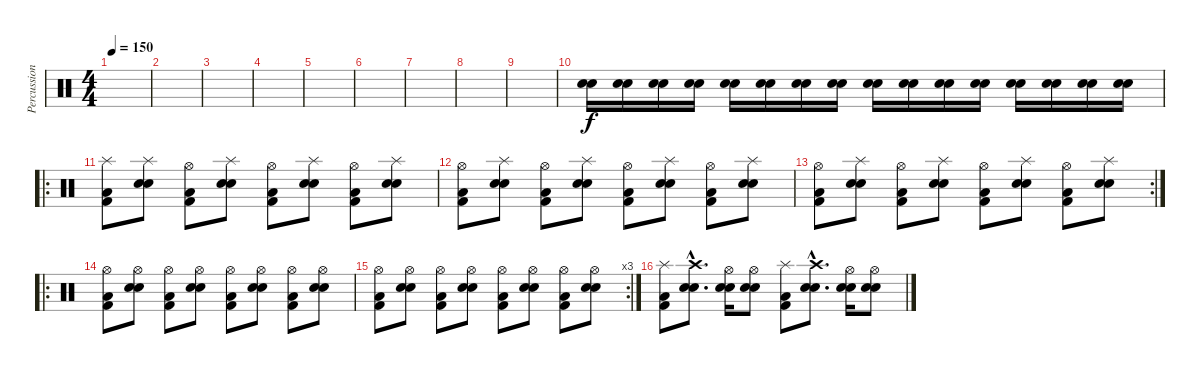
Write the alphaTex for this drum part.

\track ("Percussions" "Percussion") {instrument percussion}
\staff {score}
\articulation defaults
\ts (4 4)
\tempo 150
\clef neutral
\ks c
|
|
|
|
|
|
|
|
|
("Snare (hit) 2" "Snare (hit) 2").16 ("Snare (hit) 2" "Snare (hit) 2").16 ("Snare (hit) 2" "Snare (hit) 2").16 ("Snare (hit) 2" "Snare (hit) 2").16 ("Snare (hit) 2" "Snare (hit) 2").16 ("Snare (hit) 2" "Snare (hit) 2").16 ("Snare (hit) 2" "Snare (hit) 2").16 ("Snare (hit) 2" "Snare (hit) 2").16 ("Snare (hit) 2" "Snare (hit) 2").16 ("Snare (hit) 2" "Snare (hit) 2").16 ("Snare (hit) 2" "Snare (hit) 2").16 ("Snare (hit) 2" "Snare (hit) 2").16 ("Electric Snare (hit)" "Snare (hit) 2").16 ("Electric Snare (hit)" "Snare (hit) 2").16 ("Electric Snare (hit)" "Snare (hit) 2").16 ("Electric Snare (hit)" "Snare (hit) 2").16 |
\ro
("Splash (hit)" "Kick (hit) 2" "Low Floor Tom (hit)").8 ("Splash (hit)" "Snare (hit) 2" "Electric Snare (hit)").8 ("Hi-Hat (open)" "Kick (hit) 2" "Low Floor Tom (hit)").8 ("Splash (hit)" "Snare (hit) 2" "Electric Snare (hit)").8 ("Hi-Hat (open)" "Kick (hit) 2" "Low Floor Tom (hit)").8 ("Splash (hit)" "Snare (hit) 2" "Electric Snare (hit)").8 ("Hi-Hat (open)" "Kick (hit) 2" "Low Floor Tom (hit)").8 ("Splash (hit)" "Snare (hit) 2" "Electric Snare (hit)").8 |
("Hi-Hat (open)" "Kick (hit) 2" "Low Floor Tom (hit)").8 ("Splash (hit)" "Snare (hit) 2" "Electric Snare (hit)").8 ("Hi-Hat (open)" "Kick (hit) 2" "Low Floor Tom (hit)").8 ("Splash (hit)" "Snare (hit) 2" "Electric Snare (hit)").8 ("Hi-Hat (open)" "Kick (hit) 2" "Low Floor Tom (hit)").8 ("Splash (hit)" "Snare (hit) 2" "Electric Snare (hit)").8 ("Hi-Hat (open)" "Kick (hit) 2" "Low Floor Tom (hit)").8 ("Splash (hit)" "Snare (hit) 2" "Electric Snare (hit)").8 |
\rc 2
("Hi-Hat (open)" "Kick (hit) 2" "Low Floor Tom (hit)").8 ("Splash (hit)" "Snare (hit) 2" "Electric Snare (hit)").8 ("Hi-Hat (open)" "Kick (hit) 2" "Low Floor Tom (hit)").8 ("Splash (hit)" "Snare (hit) 2" "Electric Snare (hit)").8 ("Hi-Hat (open)" "Kick (hit) 2" "Low Floor Tom (hit)").8 ("Splash (hit)" "Snare (hit) 2" "Electric Snare (hit)").8 ("Hi-Hat (open)" "Kick (hit) 2" "Low Floor Tom (hit)").8 ("Splash (hit)" "Snare (hit) 2" "Electric Snare (hit)").8 |
\ro
("Hi-Hat (open)" "Kick (hit) 2" "Low Floor Tom (hit)").8 ("Hi-Hat (open)" "Snare (hit) 2" "Electric Snare (hit)").8 ("Hi-Hat (open)" "Kick (hit) 2" "Low Floor Tom (hit)").8 ("Hi-Hat (open)" "Snare (hit) 2" "Electric Snare (hit)").8 ("Hi-Hat (open)" "Kick (hit) 2" "Low Floor Tom (hit)").8 ("Hi-Hat (open)" "Snare (hit) 2" "Electric Snare (hit)").8 ("Hi-Hat (open)" "Kick (hit) 2" "Low Floor Tom (hit)").8 ("Hi-Hat (open)" "Snare (hit) 2" "Electric Snare (hit)").8 |
\rc 3
("Hi-Hat (open)" "Kick (hit) 2" "Low Floor Tom (hit)").8 ("Hi-Hat (open)" "Snare (hit) 2" "Electric Snare (hit)").8 ("Hi-Hat (open)" "Kick (hit) 2" "Low Floor Tom (hit)").8 ("Hi-Hat (open)" "Snare (hit) 2" "Electric Snare (hit)").8 ("Hi-Hat (open)" "Kick (hit) 2" "Low Floor Tom (hit)").8 ("Hi-Hat (open)" "Snare (hit) 2" "Electric Snare (hit)").8 ("Hi-Hat (open)" "Kick (hit) 2" "Low Floor Tom (hit)").8 ("Hi-Hat (open)" "Snare (hit) 2" "Electric Snare (hit)").8 |
("Splash (hit)" "Kick (hit) 2" "Low Floor Tom (hit)").8 ("Crash high (hit)"{hac} "Snare (hit) 2"{hac} "Electric Snare (hit)"{hac}).8{d} ("Hi-Hat (open)" "Snare (hit) 2" "Electric Snare (hit)").16 ("Hi-Hat (open)" "Snare (hit) 2" "Electric Snare (hit)").8 ("Splash (hit)" "Kick (hit) 2" "Low Floor Tom (hit)").8 ("Crash high (hit)"{hac} "Snare (hit) 2"{hac} "Electric Snare (hit)"{hac}).8{d} ("Hi-Hat (open)" "Snare (hit) 2" "Electric Snare (hit)").16 ("Hi-Hat (open)" "Snare (hit) 2" "Electric Snare (hit)").8
